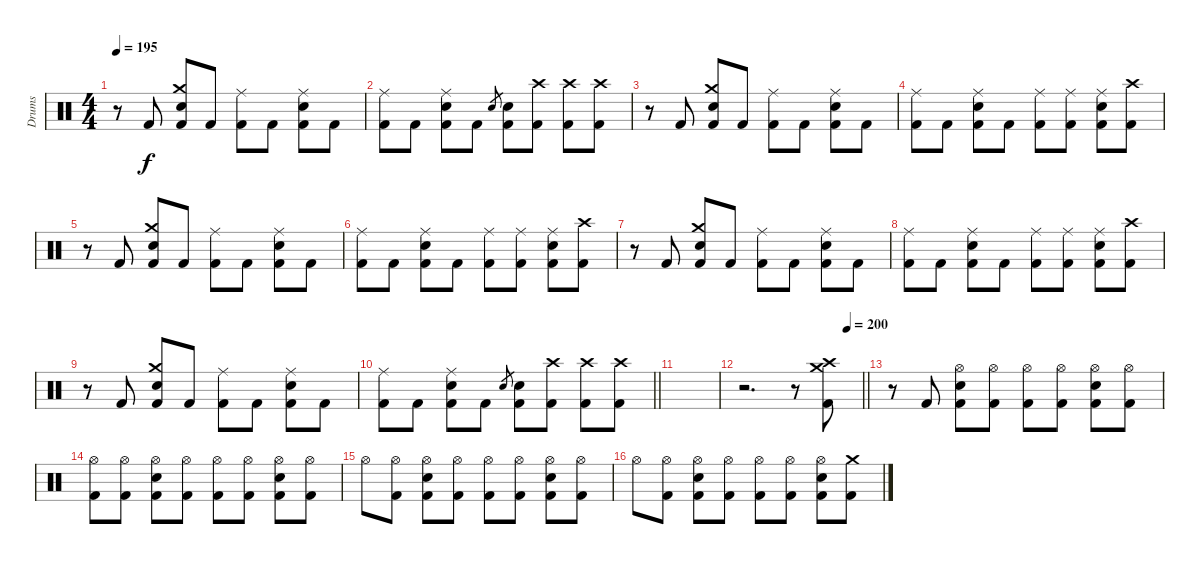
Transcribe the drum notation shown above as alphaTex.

\track ("Drums" "Drums") {instrument percussion}
\staff {score}
\articulation defaults
\ts (4 4)
\tempo 195
\clef neutral
\ks c
r.8{dy f} "Kick (hit) 2".8 ("Crash medium (hit)" "Electric Snare (hit)" "Kick (hit) 2").8 "Kick (hit) 2".8 ("Ride (middle)" "Kick (hit) 2").8 "Kick (hit) 2".8 ("Ride (middle)" "Electric Snare (hit)" "Kick (hit) 2").8 "Kick (hit) 2".8 |
("Ride (middle)" "Kick (hit) 2").8 "Kick (hit) 2".8 ("Ride (middle)" "Electric Snare (hit)" "Kick (hit) 2").8 "Kick (hit) 2".8 "Electric Snare (hit)".8{gr} ("Electric Snare (hit)" "Kick (hit) 2").8 ("Crash high (hit)" "Kick (hit) 2").8 ("Crash high (hit)" "Kick (hit) 2").8 ("Crash high (hit)" "Kick (hit) 2").8 |
r.8 "Kick (hit) 2".8 ("Crash medium (hit)" "Electric Snare (hit)" "Kick (hit) 2").8 "Kick (hit) 2".8 ("Ride (middle)" "Kick (hit) 2").8 "Kick (hit) 2".8 ("Ride (middle)" "Electric Snare (hit)" "Kick (hit) 2").8 "Kick (hit) 2".8 |
("Ride (middle)" "Kick (hit) 2").8 "Kick (hit) 2".8 ("Ride (middle)" "Electric Snare (hit)" "Kick (hit) 2").8 "Kick (hit) 2".8 ("Ride (middle)" "Kick (hit) 2").8 ("Ride (middle)" "Kick (hit) 2").8 ("Ride (middle)" "Electric Snare (hit)" "Kick (hit) 2").8 ("Crash high (hit)" "Kick (hit) 2").8 |
r.8 "Kick (hit) 2".8 ("Crash medium (hit)" "Electric Snare (hit)" "Kick (hit) 2").8 "Kick (hit) 2".8 ("Ride (middle)" "Kick (hit) 2").8 "Kick (hit) 2".8 ("Ride (middle)" "Electric Snare (hit)" "Kick (hit) 2").8 "Kick (hit) 2".8 |
("Ride (middle)" "Kick (hit) 2").8 "Kick (hit) 2".8 ("Ride (middle)" "Electric Snare (hit)" "Kick (hit) 2").8 "Kick (hit) 2".8 ("Ride (middle)" "Kick (hit) 2").8 ("Ride (middle)" "Kick (hit) 2").8 ("Ride (middle)" "Electric Snare (hit)" "Kick (hit) 2").8 ("Crash high (hit)" "Kick (hit) 2").8 |
r.8 "Kick (hit) 2".8 ("Crash medium (hit)" "Electric Snare (hit)" "Kick (hit) 2").8 "Kick (hit) 2".8 ("Ride (middle)" "Kick (hit) 2").8 "Kick (hit) 2".8 ("Ride (middle)" "Electric Snare (hit)" "Kick (hit) 2").8 "Kick (hit) 2".8 |
("Ride (middle)" "Kick (hit) 2").8 "Kick (hit) 2".8 ("Ride (middle)" "Electric Snare (hit)" "Kick (hit) 2").8 "Kick (hit) 2".8 ("Ride (middle)" "Kick (hit) 2").8 ("Ride (middle)" "Kick (hit) 2").8 ("Ride (middle)" "Electric Snare (hit)" "Kick (hit) 2").8 ("Crash high (hit)" "Kick (hit) 2").8 |
r.8 "Kick (hit) 2".8 ("Crash medium (hit)" "Electric Snare (hit)" "Kick (hit) 2").8 "Kick (hit) 2".8 ("Ride (middle)" "Kick (hit) 2").8 "Kick (hit) 2".8 ("Ride (middle)" "Electric Snare (hit)" "Kick (hit) 2").8 "Kick (hit) 2".8 |
\barLineRight lightlight
("Ride (middle)" "Kick (hit) 2").8 "Kick (hit) 2".8 ("Ride (middle)" "Electric Snare (hit)" "Kick (hit) 2").8 "Kick (hit) 2".8 "Electric Snare (hit)".8{gr} ("Electric Snare (hit)" "Kick (hit) 2").8 ("Crash high (hit)" "Kick (hit) 2").8 ("Crash high (hit)" "Kick (hit) 2").8 ("Crash high (hit)" "Kick (hit) 2").8 |
|
\tempo (200 0.875)
\barLineRight lightlight
r.2{d} r.8 ("Crash medium (hit)" "Crash high (hit)" "Kick (hit) 2").8 |
\section ("" "")
r.8 "Kick (hit) 2".8 ("Hi-Hat (open)" "Electric Snare (hit)" "Kick (hit) 2").8 ("Hi-Hat (open)" "Kick (hit) 2").8 ("Hi-Hat (open)" "Kick (hit) 2").8 ("Hi-Hat (open)" "Kick (hit) 2").8 ("Hi-Hat (open)" "Electric Snare (hit)" "Kick (hit) 2").8 ("Hi-Hat (open)" "Kick (hit) 2").8 |
("Hi-Hat (open)" "Kick (hit) 2").8 ("Hi-Hat (open)" "Kick (hit) 2").8 ("Hi-Hat (open)" "Electric Snare (hit)" "Kick (hit) 2").8 ("Hi-Hat (open)" "Kick (hit) 2").8 ("Hi-Hat (open)" "Kick (hit) 2").8 ("Hi-Hat (open)" "Kick (hit) 2").8 ("Hi-Hat (open)" "Electric Snare (hit)" "Kick (hit) 2").8 ("Hi-Hat (open)" "Kick (hit) 2").8 |
"Hi-Hat (open)".8 ("Hi-Hat (open)" "Kick (hit) 2").8 ("Hi-Hat (open)" "Electric Snare (hit)" "Kick (hit) 2").8 ("Hi-Hat (open)" "Kick (hit) 2").8 ("Hi-Hat (open)" "Kick (hit) 2").8 ("Hi-Hat (open)" "Kick (hit) 2").8 ("Hi-Hat (open)" "Electric Snare (hit)" "Kick (hit) 2").8 ("Hi-Hat (open)" "Kick (hit) 2").8 |
"Hi-Hat (open)".8 ("Hi-Hat (open)" "Kick (hit) 2").8 ("Hi-Hat (open)" "Electric Snare (hit)" "Kick (hit) 2").8 ("Hi-Hat (open)" "Kick (hit) 2").8 ("Hi-Hat (open)" "Kick (hit) 2").8 ("Hi-Hat (open)" "Kick (hit) 2").8 ("Hi-Hat (open)" "Electric Snare (hit)" "Kick (hit) 2").8 ("Crash medium (hit)" "Kick (hit) 2").8
